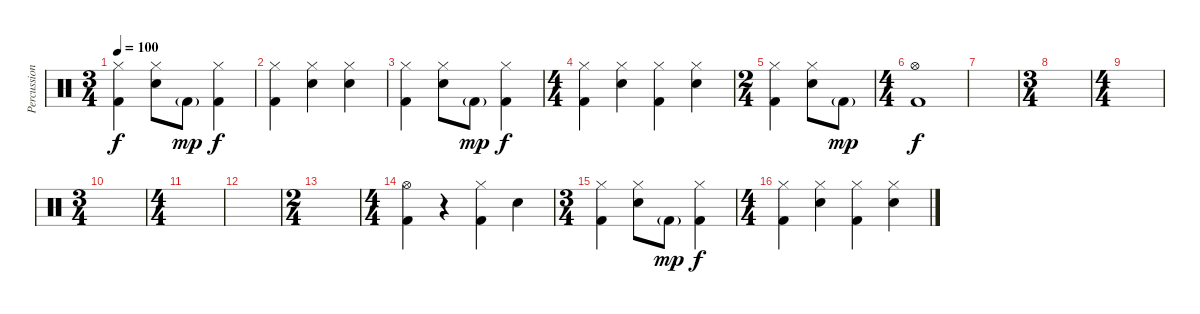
\track ("Percussion" "Percussion") {instrument percussion}
\staff {score}
\articulation defaults
\ts (3 4)
\tempo 100
\clef neutral
\ks c
("Hi-Hat (closed)" "Kick (hit) 2").4{dy f} ("Hi-Hat (closed)" "Snare (hit) 2").8 "Kick (hit) 2"{g}.8{dy mp} ("Hi-Hat (closed)" "Kick (hit) 2").4{dy f} |
("Hi-Hat (closed)" "Kick (hit) 2").4 ("Hi-Hat (closed)" "Snare (hit) 2").4 ("Hi-Hat (closed)" "Snare (hit) 2").4 |
("Hi-Hat (closed)" "Kick (hit) 2").4 ("Hi-Hat (closed)" "Snare (hit) 2").8 "Kick (hit) 2"{g}.8{dy mp} ("Hi-Hat (closed)" "Kick (hit) 2").4{dy f} |
\ts (4 4)
("Hi-Hat (closed)" "Kick (hit) 2").4 ("Hi-Hat (closed)" "Snare (hit) 2").4 ("Hi-Hat (closed)" "Kick (hit) 2").4 ("Hi-Hat (closed)" "Snare (hit) 2").4 |
\ts (2 4)
("Hi-Hat (closed)" "Kick (hit) 2").4 ("Hi-Hat (closed)" "Snare (hit) 2").8 "Kick (hit) 2"{g}.8{dy mp} |
\ts (4 4)
("Hi-Hat (open)" "Kick (hit) 2").1{dy f} |
|
\ts (3 4)
|
\ts (4 4)
|
\ts (3 4)
|
\ts (4 4)
|
|
\ts (2 4)
|
\ts (4 4)
("Hi-Hat (open)" "Kick (hit) 2").4 r.4 ("Hi-Hat (closed)" "Kick (hit) 2").4 "Snare (hit) 2".4 |
\ts (3 4)
("Hi-Hat (closed)" "Kick (hit) 2").4 ("Hi-Hat (closed)" "Snare (hit) 2").8 "Kick (hit) 2"{g}.8{dy mp} ("Hi-Hat (closed)" "Kick (hit) 2").4{dy f} |
\ts (4 4)
("Hi-Hat (closed)" "Kick (hit) 2").4 ("Hi-Hat (closed)" "Snare (hit) 2").4 ("Hi-Hat (closed)" "Kick (hit) 2").4 ("Hi-Hat (closed)" "Snare (hit) 2").4
